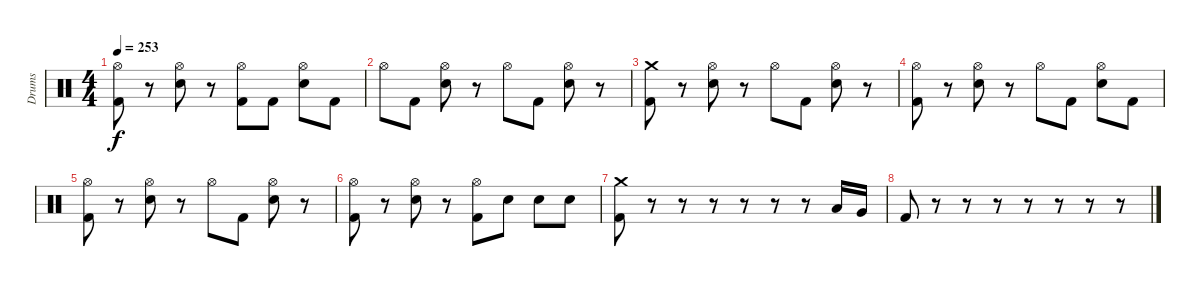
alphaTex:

\track ("Drums" "Drums") {instrument percussion}
\staff {score}
\articulation defaults
\ts (4 4)
\tempo 253
\clef neutral
\ks c
("Hi-Hat (open)" "Kick (hit) 2").8{dy f} r.8 ("Hi-Hat (open)" "Electric Snare (hit)").8 r.8 ("Hi-Hat (open)" "Kick (hit) 2").8 "Kick (hit) 2".8 ("Hi-Hat (open)" "Electric Snare (hit)").8 "Kick (hit) 2".8 |
"Hi-Hat (open)".8 "Kick (hit) 2".8 ("Hi-Hat (open)" "Electric Snare (hit)").8 r.8 "Hi-Hat (open)".8 "Kick (hit) 2".8 ("Hi-Hat (open)" "Electric Snare (hit)").8 r.8 |
("Crash medium (hit)" "Kick (hit) 2").8 r.8 ("Hi-Hat (open)" "Electric Snare (hit)").8 r.8 "Hi-Hat (open)".8 "Kick (hit) 2".8 ("Hi-Hat (open)" "Electric Snare (hit)").8 r.8 |
("Hi-Hat (open)" "Kick (hit) 2").8 r.8 ("Hi-Hat (open)" "Electric Snare (hit)").8 r.8 "Hi-Hat (open)".8 "Kick (hit) 2".8 ("Hi-Hat (open)" "Electric Snare (hit)").8 "Kick (hit) 2".8 |
("Hi-Hat (open)" "Kick (hit) 2").8 r.8 ("Hi-Hat (open)" "Electric Snare (hit)").8 r.8 "Hi-Hat (open)".8 "Kick (hit) 2".8 ("Hi-Hat (open)" "Electric Snare (hit)").8 r.8 |
("Hi-Hat (open)" "Kick (hit) 2").8 r.8 ("Hi-Hat (open)" "Electric Snare (hit)").8 r.8 ("Hi-Hat (open)" "Kick (hit) 2").8 "Electric Snare (hit)".8 "Electric Snare (hit)".8 "Electric Snare (hit)".8 |
("Crash medium (hit)" "Kick (hit) 2").8 r.8 r.8 r.8 r.8 r.8 r.8 "Low Tom (hit)".16 "Very Low Tom (hit)".16 |
"Kick (hit) 2".8 r.8 r.8 r.8 r.8 r.8 r.8 r.8
